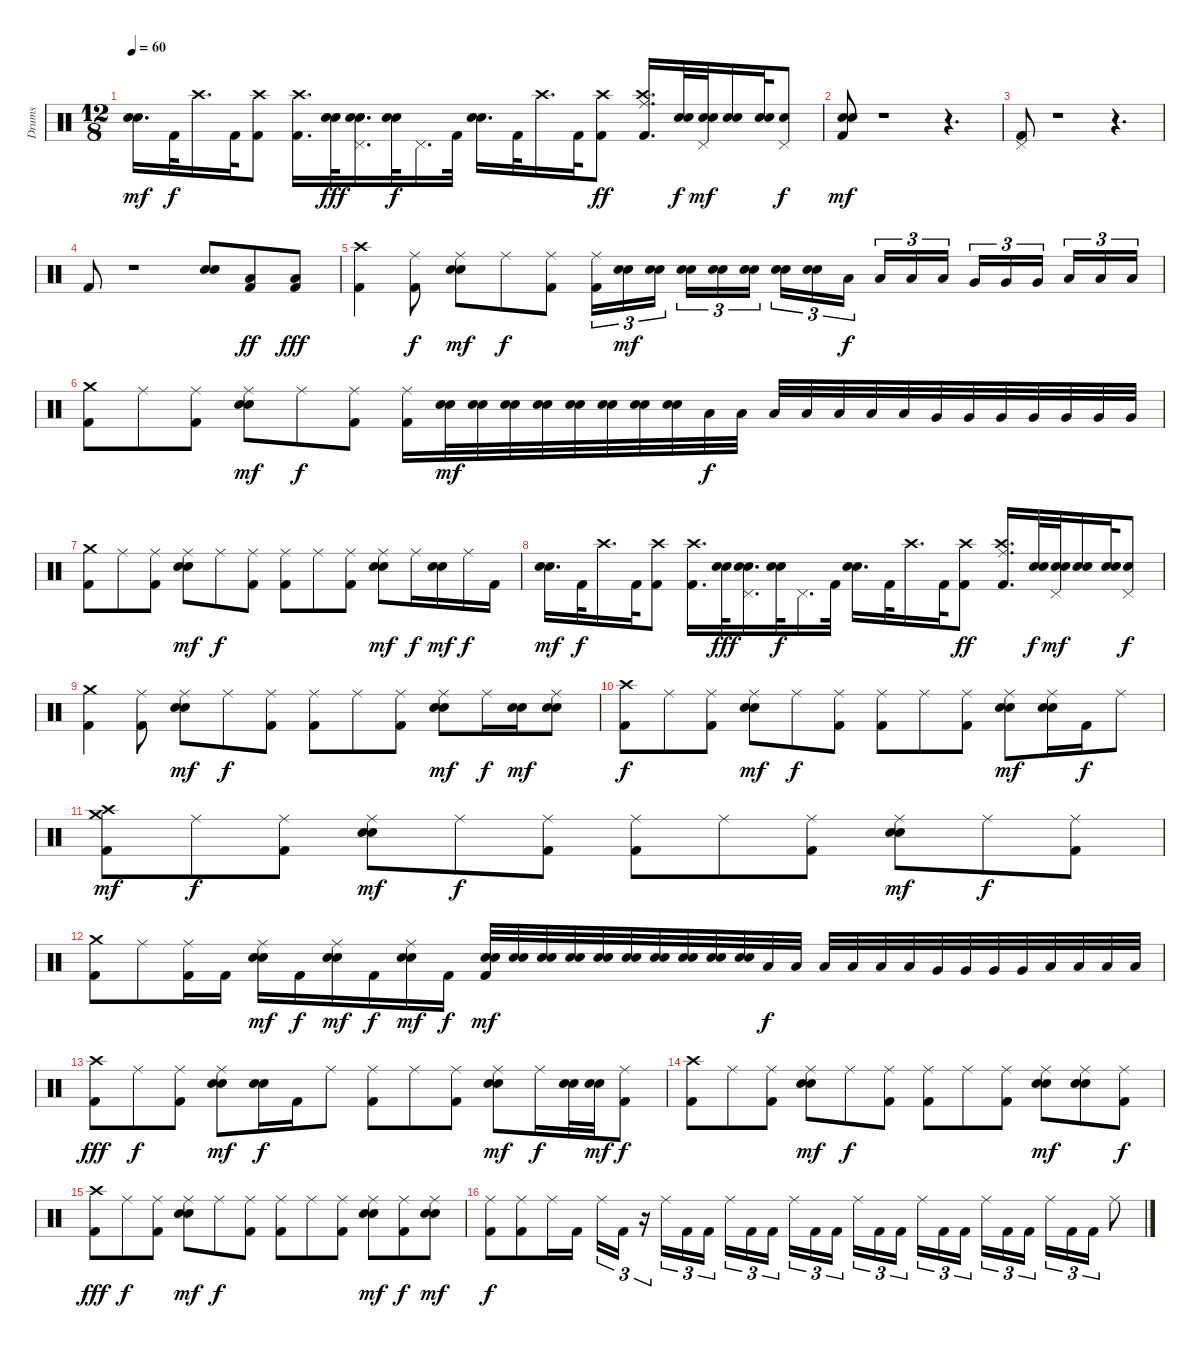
\track ("Drums" "Drums") {instrument percussion}
\staff {score}
\articulation defaults
\ts (12 8)
\tempo 60
\clef neutral
\ks c
("Electric Snare (hit)" "Snare (hit) 2").16{d dy mf} "Kick (hit) 2".32{dy f} "Crash high (hit)".16{d} "Kick (hit) 2".32 ("Crash high (hit)" "Kick (hit) 2").8 ("Crash high (hit)" "Kick (hit) 2").16{d} ("Electric Snare (hit)" "Snare (hit) 2").32{dy fff} ("Pedal Hi-Hat (hit)" "Electric Snare (hit)" "Snare (hit) 2").16{d} ("Electric Snare (hit)" "Snare (hit) 2").32{dy f} "Pedal Hi-Hat (hit)".16{d} "Kick (hit) 2".32 ("Electric Snare (hit)" "Snare (hit) 2").16{d} "Kick (hit) 2".32 "Crash high (hit)".16{d} "Kick (hit) 2".32 ("Kick (hit) 2" "Crash high (hit)").8{dy ff} ("Ride (middle)" "Kick (hit) 2" "Crash high (hit)").16{d} ("Electric Snare (hit)" "Snare (hit) 2").32{dy f} ("Pedal Hi-Hat (hit)" "Electric Snare (hit)" "Snare (hit) 2").32{dy mf} ("Electric Snare (hit)" "Snare (hit) 2").16 ("Electric Snare (hit)" "Snare (hit) 2").32 ("Pedal Hi-Hat (hit)" "Electric Snare (hit)").8{dy f} |
("Electric Snare (hit)" "Kick (hit) 2" "Snare (hit) 2").8{dy mf} r.1 r.4{d} |
("Pedal Hi-Hat (hit)" "Kick (hit) 2").8 r.1 r.4{d} |
"Kick (hit) 2".8 r.1 ("Electric Snare (hit)" "Snare (hit) 2").8 ("Low Floor Tom (hit)" "Kick (hit) 2").8{dy ff} ("Low Floor Tom (hit)" "Kick (hit) 2").8{dy fff} |
("Crash high (hit)" "Kick (hit) 2").4 ("Ride (middle)" "Kick (hit) 2").8{dy f} ("Ride (middle)" "Electric Snare (hit)" "Snare (hit) 2").8{dy mf} "Ride (middle)".8{dy f} ("Ride (middle)" "Kick (hit) 2").8 ("Ride (middle)" "Kick (hit) 2").16{tu (3 2)} ("Electric Snare (hit)" "Snare (hit) 2").16{tu (3 2) dy mf} ("Electric Snare (hit)" "Snare (hit) 2").16{tu (3 2)} ("Electric Snare (hit)" "Snare (hit) 2").16{tu (3 2)} ("Electric Snare (hit)" "Snare (hit) 2").16{tu (3 2)} ("Electric Snare (hit)" "Snare (hit) 2").16{tu (3 2)} ("Electric Snare (hit)" "Snare (hit) 2").16{tu (3 2)} ("Electric Snare (hit)" "Snare (hit) 2").16{tu (3 2)} "Low Tom (hit)".16{tu (3 2) dy f} "Low Tom (hit)".16{tu (3 2)} "Low Tom (hit)".16{tu (3 2)} "Low Tom (hit)".16{tu (3 2)} "Very Low Tom (hit)".16{tu (3 2)} "Very Low Tom (hit)".16{tu (3 2)} "Very Low Tom (hit)".16{tu (3 2)} "Low Floor Tom (hit)".16{tu (3 2)} "Low Floor Tom (hit)".16{tu (3 2)} "Low Floor Tom (hit)".16{tu (3 2)} |
("Crash medium (hit)" "Kick (hit) 2").8 "Ride (middle)".8 ("Ride (middle)" "Kick (hit) 2").8 ("Ride (middle)" "Electric Snare (hit)" "Snare (hit) 2").8{dy mf} "Ride (middle)".8{dy f} ("Ride (middle)" "Kick (hit) 2").8 ("Ride (middle)" "Kick (hit) 2").16 ("Electric Snare (hit)" "Snare (hit) 2").32{dy mf} ("Electric Snare (hit)" "Snare (hit) 2").32 ("Electric Snare (hit)" "Snare (hit) 2").32 ("Electric Snare (hit)" "Snare (hit) 2").32 ("Electric Snare (hit)" "Snare (hit) 2").32 ("Electric Snare (hit)" "Snare (hit) 2").32 ("Electric Snare (hit)" "Snare (hit) 2").32 ("Electric Snare (hit)" "Snare (hit) 2").32 "Low Tom (hit)".32{dy f} "Low Tom (hit)".32 "Low Tom (hit)".32 "Low Tom (hit)".32 "Low Tom (hit)".32 "Low Tom (hit)".32 "Low Tom (hit)".32 "Very Low Tom (hit)".32 "Very Low Tom (hit)".32 "Very Low Tom (hit)".32 "Very Low Tom (hit)".32 "Very Low Tom (hit)".32 "Very Low Tom (hit)".32 "Very Low Tom (hit)".32 |
("Crash medium (hit)" "Kick (hit) 2").8 "Ride (middle)".8 ("Ride (middle)" "Kick (hit) 2").8 ("Ride (middle)" "Snare (hit) 2" "Electric Snare (hit)").8{dy mf} "Ride (middle)".8{dy f} ("Ride (middle)" "Kick (hit) 2").8 ("Ride (middle)" "Kick (hit) 2").8 "Ride (middle)".8 ("Ride (middle)" "Kick (hit) 2").8 ("Ride (middle)" "Snare (hit) 2" "Electric Snare (hit)").8{dy mf} "Ride (middle)".16{dy f} ("Snare (hit) 2" "Electric Snare (hit)").16{dy mf} "Ride (middle)".16{dy f} "Kick (hit) 2".16 |
("Electric Snare (hit)" "Snare (hit) 2").16{d dy mf} "Kick (hit) 2".32{dy f} "Crash high (hit)".16{d} "Kick (hit) 2".32 ("Crash high (hit)" "Kick (hit) 2").8 ("Crash high (hit)" "Kick (hit) 2").16{d} ("Electric Snare (hit)" "Snare (hit) 2").32{dy fff} ("Pedal Hi-Hat (hit)" "Electric Snare (hit)" "Snare (hit) 2").16{d} ("Electric Snare (hit)" "Snare (hit) 2").32{dy f} "Pedal Hi-Hat (hit)".16{d} "Kick (hit) 2".32 ("Electric Snare (hit)" "Snare (hit) 2").16{d} "Kick (hit) 2".32 "Crash high (hit)".16{d} "Kick (hit) 2".32 ("Kick (hit) 2" "Crash high (hit)").8{dy ff} ("Ride (middle)" "Kick (hit) 2" "Crash high (hit)").16{d} ("Electric Snare (hit)" "Snare (hit) 2").32{dy f} ("Pedal Hi-Hat (hit)" "Electric Snare (hit)" "Snare (hit) 2").32{dy mf} ("Electric Snare (hit)" "Snare (hit) 2").16 ("Electric Snare (hit)" "Snare (hit) 2").32 ("Pedal Hi-Hat (hit)" "Electric Snare (hit)").8{dy f} |
("Crash medium (hit)" "Kick (hit) 2").4 ("Ride (middle)" "Kick (hit) 2").8 ("Ride (middle)" "Electric Snare (hit)" "Snare (hit) 2").8{dy mf} "Ride (middle)".8{dy f} ("Ride (middle)" "Kick (hit) 2").8 ("Ride (middle)" "Kick (hit) 2").8 "Ride (middle)".8 ("Ride (middle)" "Kick (hit) 2").8 ("Ride (middle)" "Electric Snare (hit)" "Snare (hit) 2").8{dy mf} "Ride (middle)".16{dy f} ("Electric Snare (hit)" "Snare (hit) 2").16{dy mf} ("Ride (middle)" "Electric Snare (hit)" "Snare (hit) 2").8 |
("Crash high (hit)" "Kick (hit) 2").8{dy f} "Ride (middle)".8 ("Ride (middle)" "Kick (hit) 2").8 ("Ride (middle)" "Electric Snare (hit)" "Snare (hit) 2").8{dy mf} "Ride (middle)".8{dy f} ("Ride (middle)" "Kick (hit) 2").8 ("Ride (middle)" "Kick (hit) 2").8 "Ride (middle)".8 ("Ride (middle)" "Kick (hit) 2").8 ("Ride (middle)" "Electric Snare (hit)" "Snare (hit) 2").8{dy mf} ("Ride (middle)" "Electric Snare (hit)" "Snare (hit) 2").16 "Kick (hit) 2".16{dy f} "Ride (middle)".8 |
("Crash high (hit)" "Crash medium (hit)" "Kick (hit) 2").8{dy mf} "Ride (middle)".8{dy f} ("Ride (middle)" "Kick (hit) 2").8 ("Ride (middle)" "Electric Snare (hit)" "Snare (hit) 2").8{dy mf} "Ride (middle)".8{dy f} ("Ride (middle)" "Kick (hit) 2").8 ("Ride (middle)" "Kick (hit) 2").8 "Ride (middle)".8 ("Ride (middle)" "Kick (hit) 2").8 ("Ride (middle)" "Electric Snare (hit)" "Snare (hit) 2").8{dy mf} "Ride (middle)".8{dy f} ("Ride (middle)" "Kick (hit) 2").8 |
("Crash medium (hit)" "Kick (hit) 2").8 "Ride (middle)".8 ("Ride (middle)" "Kick (hit) 2").16 "Kick (hit) 2".16 ("Ride (middle)" "Electric Snare (hit)" "Snare (hit) 2").16{dy mf} "Kick (hit) 2".16{dy f} ("Ride (middle)" "Electric Snare (hit)" "Snare (hit) 2").16{dy mf} "Kick (hit) 2".16{dy f} ("Ride (middle)" "Electric Snare (hit)" "Snare (hit) 2").16{dy mf} "Kick (hit) 2".16{dy f} ("Electric Snare (hit)" "Snare (hit) 2" "Kick (hit) 2").32{dy mf} ("Electric Snare (hit)" "Snare (hit) 2").32 ("Electric Snare (hit)" "Snare (hit) 2").32 ("Electric Snare (hit)" "Snare (hit) 2").32 ("Electric Snare (hit)" "Snare (hit) 2").32 ("Electric Snare (hit)" "Snare (hit) 2").32 ("Electric Snare (hit)" "Snare (hit) 2").32 ("Electric Snare (hit)" "Snare (hit) 2").32 ("Electric Snare (hit)" "Snare (hit) 2").32 ("Electric Snare (hit)" "Snare (hit) 2").32 "Low Tom (hit)".32{dy f} "Low Tom (hit)".32 "Low Tom (hit)".32 "Low Tom (hit)".32 "Low Tom (hit)".32 "Low Tom (hit)".32 "Very Low Tom (hit)".32 "Very Low Tom (hit)".32 "Very Low Tom (hit)".32 "Very Low Tom (hit)".32 "Low Floor Tom (hit)".32 "Low Floor Tom (hit)".32 "Low Floor Tom (hit)".32 "Low Floor Tom (hit)".32 |
("Crash high (hit)" "Kick (hit) 2").8{dy fff} "Ride (middle)".8{dy f} ("Ride (middle)" "Kick (hit) 2").8 ("Ride (middle)" "Electric Snare (hit)" "Snare (hit) 2").8{dy mf} ("Electric Snare (hit)" "Snare (hit) 2").16{dy f} "Kick (hit) 2".16 "Ride (middle)".8 ("Ride (middle)" "Kick (hit) 2").8 "Ride (middle)".8 ("Ride (middle)" "Kick (hit) 2").8 ("Ride (middle)" "Electric Snare (hit)" "Snare (hit) 2").8{dy mf} "Ride (middle)".16{dy f} ("Electric Snare (hit)" "Snare (hit) 2").32 ("Electric Snare (hit)" "Snare (hit) 2").32{dy mf} ("Ride (middle)" "Kick (hit) 2").8{dy f} |
("Crash high (hit)" "Kick (hit) 2").8 "Ride (middle)".8 ("Ride (middle)" "Kick (hit) 2").8 ("Ride (middle)" "Electric Snare (hit)" "Snare (hit) 2").8{dy mf} "Ride (middle)".8{dy f} ("Ride (middle)" "Kick (hit) 2").8 ("Ride (middle)" "Kick (hit) 2").8 "Ride (middle)".8 ("Ride (middle)" "Kick (hit) 2").8 ("Ride (middle)" "Electric Snare (hit)" "Snare (hit) 2").8{dy mf} ("Ride (middle)" "Electric Snare (hit)" "Snare (hit) 2").8 ("Ride (middle)" "Kick (hit) 2").8{dy f} |
("Crash high (hit)" "Kick (hit) 2").8{dy fff} "Ride (middle)".8{dy f} ("Ride (middle)" "Kick (hit) 2").8 ("Ride (middle)" "Electric Snare (hit)" "Snare (hit) 2").8{dy mf} "Ride (middle)".8{dy f} ("Ride (middle)" "Kick (hit) 2").8 ("Ride (middle)" "Kick (hit) 2").8 "Ride (middle)".8 ("Ride (middle)" "Kick (hit) 2").8 ("Ride (middle)" "Electric Snare (hit)" "Snare (hit) 2").8{dy mf} ("Ride (middle)" "Kick (hit) 2").8{dy f} ("Ride (middle)" "Electric Snare (hit)" "Snare (hit) 2").8{dy mf} |
("Ride (middle)" "Kick (hit) 2").8{dy f} ("Ride (middle)" "Kick (hit) 2").8 "Ride (middle)".16 "Kick (hit) 2".16 "Ride (middle)".16{tu (3 2)} "Kick (hit) 2".16{tu (3 2)} r.16{tu (3 2)} "Ride (middle)".16{tu (3 2)} "Kick (hit) 2".16{tu (3 2)} "Kick (hit) 2".16{tu (3 2)} "Ride (middle)".16{tu (3 2)} "Kick (hit) 2".16{tu (3 2)} "Kick (hit) 2".16{tu (3 2)} "Ride (middle)".16{tu (3 2)} "Kick (hit) 2".16{tu (3 2)} "Kick (hit) 2".16{tu (3 2)} "Ride (middle)".16{tu (3 2)} "Kick (hit) 2".16{tu (3 2)} "Kick (hit) 2".16{tu (3 2)} "Ride (middle)".16{tu (3 2)} "Kick (hit) 2".16{tu (3 2)} "Kick (hit) 2".16{tu (3 2)} "Ride (middle)".16{tu (3 2)} "Kick (hit) 2".16{tu (3 2)} "Kick (hit) 2".16{tu (3 2)} "Ride (middle)".16{tu (3 2)} "Kick (hit) 2".16{tu (3 2)} "Kick (hit) 2".16{tu (3 2)} "Ride (middle)".8
